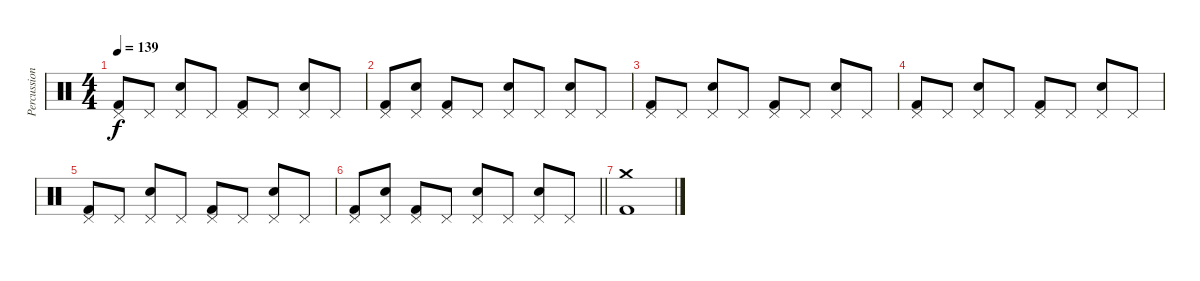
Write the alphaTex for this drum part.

\track ("Percussion" "Percussion") {instrument percussion}
\staff {score}
\articulation defaults
\ts (4 4)
\tempo 139
\clef neutral
\ks c
("Kick (hit) 2" "Pedal Hi-Hat (hit)").8{dy f} "Pedal Hi-Hat (hit)".8 ("Snare (hit) 2" "Pedal Hi-Hat (hit)").8 "Pedal Hi-Hat (hit)".8 ("Kick (hit) 2" "Pedal Hi-Hat (hit)").8 "Pedal Hi-Hat (hit)".8 ("Snare (hit) 2" "Pedal Hi-Hat (hit)").8 "Pedal Hi-Hat (hit)".8 |
("Kick (hit) 2" "Pedal Hi-Hat (hit)").8 ("Snare (hit) 2" "Pedal Hi-Hat (hit)").8 ("Kick (hit) 2" "Pedal Hi-Hat (hit)").8 "Pedal Hi-Hat (hit)".8 ("Snare (hit) 2" "Pedal Hi-Hat (hit)").8 "Pedal Hi-Hat (hit)".8 ("Snare (hit) 2" "Pedal Hi-Hat (hit)").8 "Pedal Hi-Hat (hit)".8 |
("Kick (hit) 2" "Pedal Hi-Hat (hit)").8 "Pedal Hi-Hat (hit)".8 ("Snare (hit) 2" "Pedal Hi-Hat (hit)").8 "Pedal Hi-Hat (hit)".8 ("Kick (hit) 2" "Pedal Hi-Hat (hit)").8 "Pedal Hi-Hat (hit)".8 ("Snare (hit) 2" "Pedal Hi-Hat (hit)").8 "Pedal Hi-Hat (hit)".8 |
("Kick (hit) 2" "Pedal Hi-Hat (hit)").8 "Pedal Hi-Hat (hit)".8 ("Snare (hit) 2" "Pedal Hi-Hat (hit)").8 "Pedal Hi-Hat (hit)".8 ("Kick (hit) 2" "Pedal Hi-Hat (hit)").8 "Pedal Hi-Hat (hit)".8 ("Snare (hit) 2" "Pedal Hi-Hat (hit)").8 "Pedal Hi-Hat (hit)".8 |
("Kick (hit) 2" "Pedal Hi-Hat (hit)").8 "Pedal Hi-Hat (hit)".8 ("Snare (hit) 2" "Pedal Hi-Hat (hit)").8 "Pedal Hi-Hat (hit)".8 ("Kick (hit) 2" "Pedal Hi-Hat (hit)").8 "Pedal Hi-Hat (hit)".8 ("Snare (hit) 2" "Pedal Hi-Hat (hit)").8 "Pedal Hi-Hat (hit)".8 |
\barLineRight lightlight
("Kick (hit) 2" "Pedal Hi-Hat (hit)").8 ("Snare (hit) 2" "Pedal Hi-Hat (hit)").8 ("Kick (hit) 2" "Pedal Hi-Hat (hit)").8 "Pedal Hi-Hat (hit)".8 ("Snare (hit) 2" "Pedal Hi-Hat (hit)").8 "Pedal Hi-Hat (hit)".8 ("Snare (hit) 2" "Pedal Hi-Hat (hit)").8 "Pedal Hi-Hat (hit)".8 |
("Crash medium (hit)" "Kick (hit) 2").1
